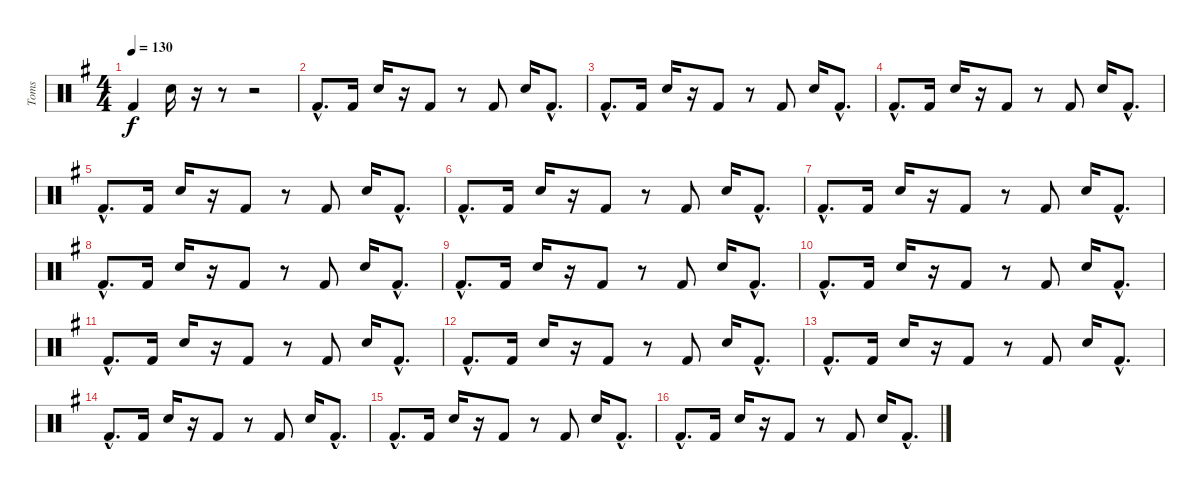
\track ("Toms" "Toms") {instrument percussion}
\staff {score}
\articulation defaults
\ts (4 4)
\tempo 130
\clef neutral
\ks g "Kick (hit) 2".4{dy f} "Snare (hit) 2".16
r.16 r.8 r.2 |
"Kick (hit) 2"{hac}.8{d} "Kick (hit) 2".16 "Snare (hit) 2".16 r.16 "Kick (hit) 2".8 r.8 "Kick (hit) 2".8 "Snare (hit) 2".16 "Kick (hit) 2"{hac}.8{d} |
"Kick (hit) 2"{hac}.8{d} "Kick (hit) 2".16 "Snare (hit) 2".16 r.16 "Kick (hit) 2".8 r.8 "Kick (hit) 2".8 "Snare (hit) 2".16 "Kick (hit) 2"{hac}.8{d} |
"Kick (hit) 2"{hac}.8{d} "Kick (hit) 2".16 "Snare (hit) 2".16 r.16 "Kick (hit) 2".8 r.8 "Kick (hit) 2".8 "Snare (hit) 2".16 "Kick (hit) 2"{hac}.8{d} |
"Kick (hit) 2"{hac}.8{d} "Kick (hit) 2".16 "Snare (hit) 2".16 r.16 "Kick (hit) 2".8 r.8 "Kick (hit) 2".8 "Snare (hit) 2".16 "Kick (hit) 2"{hac}.8{d} |
"Kick (hit) 2"{hac}.8{d} "Kick (hit) 2".16 "Snare (hit) 2".16 r.16 "Kick (hit) 2".8 r.8 "Kick (hit) 2".8 "Snare (hit) 2".16 "Kick (hit) 2"{hac}.8{d} |
"Kick (hit) 2"{hac}.8{d} "Kick (hit) 2".16 "Snare (hit) 2".16 r.16 "Kick (hit) 2".8 r.8 "Kick (hit) 2".8 "Snare (hit) 2".16 "Kick (hit) 2"{hac}.8{d} |
"Kick (hit) 2"{hac}.8{d} "Kick (hit) 2".16 "Snare (hit) 2".16 r.16 "Kick (hit) 2".8 r.8 "Kick (hit) 2".8 "Snare (hit) 2".16 "Kick (hit) 2"{hac}.8{d} |
"Kick (hit) 2"{hac}.8{d} "Kick (hit) 2".16 "Snare (hit) 2".16 r.16 "Kick (hit) 2".8 r.8 "Kick (hit) 2".8 "Snare (hit) 2".16 "Kick (hit) 2"{hac}.8{d} |
"Kick (hit) 2"{hac}.8{d} "Kick (hit) 2".16 "Snare (hit) 2".16 r.16 "Kick (hit) 2".8 r.8 "Kick (hit) 2".8 "Snare (hit) 2".16 "Kick (hit) 2"{hac}.8{d} |
"Kick (hit) 2"{hac}.8{d} "Kick (hit) 2".16 "Snare (hit) 2".16 r.16 "Kick (hit) 2".8 r.8 "Kick (hit) 2".8 "Snare (hit) 2".16 "Kick (hit) 2"{hac}.8{d} |
"Kick (hit) 2"{hac}.8{d} "Kick (hit) 2".16 "Snare (hit) 2".16 r.16 "Kick (hit) 2".8 r.8 "Kick (hit) 2".8 "Snare (hit) 2".16 "Kick (hit) 2"{hac}.8{d} |
"Kick (hit) 2"{hac}.8{d} "Kick (hit) 2".16 "Snare (hit) 2".16 r.16 "Kick (hit) 2".8 r.8 "Kick (hit) 2".8 "Snare (hit) 2".16 "Kick (hit) 2"{hac}.8{d} |
"Kick (hit) 2"{hac}.8{d} "Kick (hit) 2".16 "Snare (hit) 2".16 r.16 "Kick (hit) 2".8 r.8 "Kick (hit) 2".8 "Snare (hit) 2".16 "Kick (hit) 2"{hac}.8{d} |
"Kick (hit) 2"{hac}.8{d} "Kick (hit) 2".16 "Snare (hit) 2".16 r.16 "Kick (hit) 2".8 r.8 "Kick (hit) 2".8 "Snare (hit) 2".16 "Kick (hit) 2"{hac}.8{d} |
"Kick (hit) 2"{hac}.8{d} "Kick (hit) 2".16 "Snare (hit) 2".16 r.16 "Kick (hit) 2".8 r.8 "Kick (hit) 2".8 "Snare (hit) 2".16 "Kick (hit) 2"{hac}.8{d}
